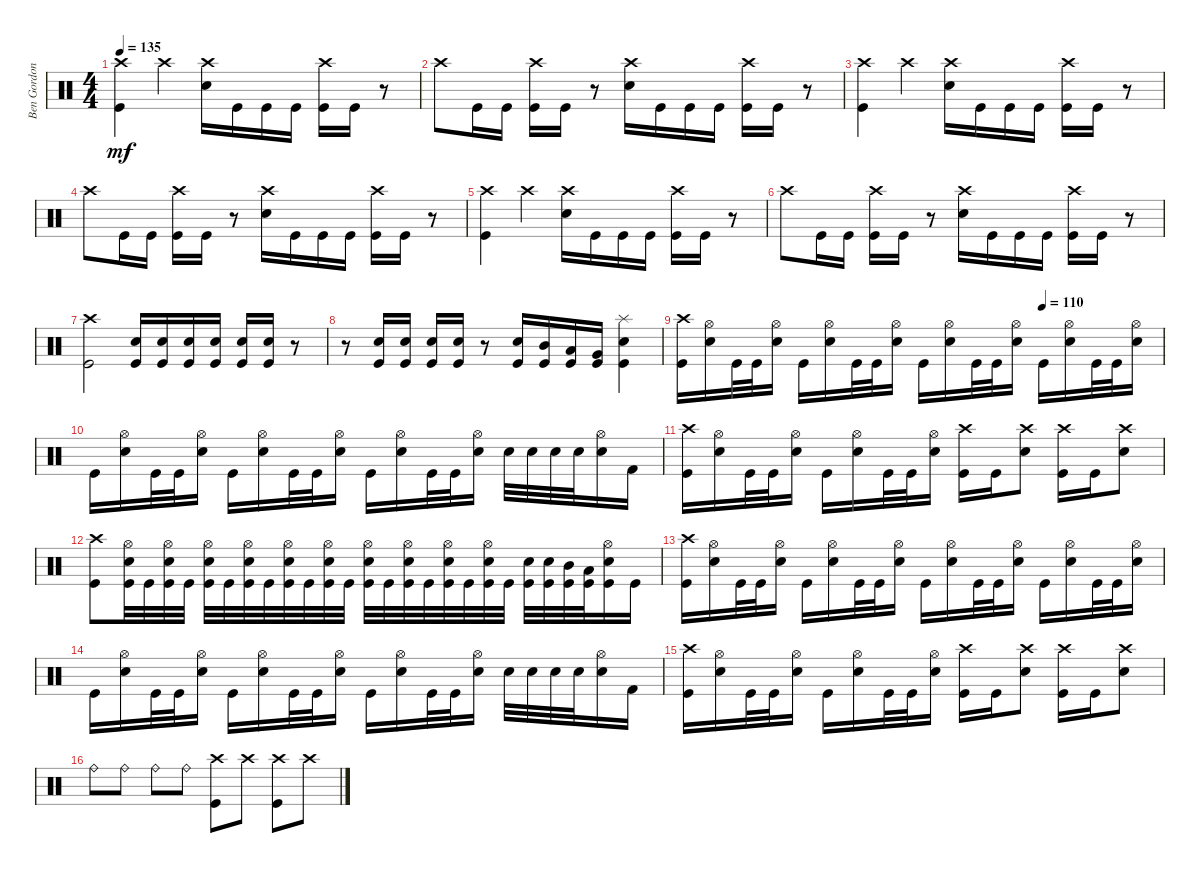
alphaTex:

\track ("Ben Gordon" "Ben Gordon") {instrument percussion}
\staff {score}
\articulation defaults
\ts (4 4)
\tempo 135
\clef neutral
\ks c
("Crash high (hit)" "Kick (hit)").4{dy mf} "Crash high (hit)".4 ("Crash high (hit)" "Snare (hit) 2").16 "Kick (hit)".16 "Kick (hit)".16 "Kick (hit)".16 ("Crash high (hit)" "Kick (hit)").16 "Kick (hit)".16 r.8 |
"Crash high (hit)".8 "Kick (hit)".16 "Kick (hit)".16 ("Crash high (hit)" "Kick (hit)").16 "Kick (hit)".16 r.8 ("Crash high (hit)" "Snare (hit) 2").16 "Kick (hit)".16 "Kick (hit)".16 "Kick (hit)".16 ("Crash high (hit)" "Kick (hit)").16 "Kick (hit)".16 r.8 |
("Crash high (hit)" "Kick (hit)").4 "Crash high (hit)".4 ("Crash high (hit)" "Snare (hit) 2").16 "Kick (hit)".16 "Kick (hit)".16 "Kick (hit)".16 ("Crash high (hit)" "Kick (hit)").16 "Kick (hit)".16 r.8 |
"Crash high (hit)".8 "Kick (hit)".16 "Kick (hit)".16 ("Crash high (hit)" "Kick (hit)").16 "Kick (hit)".16 r.8 ("Crash high (hit)" "Snare (hit) 2").16 "Kick (hit)".16 "Kick (hit)".16 "Kick (hit)".16 ("Crash high (hit)" "Kick (hit)").16 "Kick (hit)".16 r.8 |
("Crash high (hit)" "Kick (hit)").4 "Crash high (hit)".4 ("Crash high (hit)" "Snare (hit) 2").16 "Kick (hit)".16 "Kick (hit)".16 "Kick (hit)".16 ("Crash high (hit)" "Kick (hit)").16 "Kick (hit)".16 r.8 |
"Crash high (hit)".8 "Kick (hit)".16 "Kick (hit)".16 ("Crash high (hit)" "Kick (hit)").16 "Kick (hit)".16 r.8 ("Crash high (hit)" "Snare (hit) 2").16 "Kick (hit)".16 "Kick (hit)".16 "Kick (hit)".16 ("Crash high (hit)" "Kick (hit)").16 "Kick (hit)".16 r.8 |
("Crash high (hit)" "Kick (hit)").2 ("Snare (hit) 2" "Kick (hit)").16 ("Snare (hit) 2" "Kick (hit)").16 ("Snare (hit) 2" "Kick (hit)").16 ("Snare (hit) 2" "Kick (hit)").16 ("Snare (hit) 2" "Kick (hit)").16 ("Snare (hit) 2" "Kick (hit)").16 r.8 |
r.8 ("Snare (hit) 2" "Kick (hit)").16 ("Snare (hit) 2" "Kick (hit)").16 ("Snare (hit) 2" "Kick (hit)").16 ("Snare (hit) 2" "Kick (hit)").16 r.8 ("Snare (hit) 2" "Kick (hit)").16 ("Mid Tom (hit)" "Kick (hit)").16 ("Low Tom (hit)" "Kick (hit)").16 ("Very Low Tom (hit)" "Kick (hit)").16 ("Splash (hit)" "Snare (hit) 2" "Kick (hit)").4 |
\tempo (110 0.75)
("Crash high (hit)" "Kick (hit)").16 ("Hi-Hat (open)" "Snare (hit) 2").16 "Kick (hit)".32 "Kick (hit)".32 ("Hi-Hat (open)" "Snare (hit) 2").16 "Kick (hit)".16 ("Hi-Hat (open)" "Snare (hit) 2").16 "Kick (hit)".32 "Kick (hit)".32 ("Hi-Hat (open)" "Snare (hit) 2").16 "Kick (hit)".16 ("Hi-Hat (open)" "Snare (hit) 2").16 "Kick (hit)".32 "Kick (hit)".32 ("Hi-Hat (open)" "Snare (hit) 2").16 "Kick (hit)".16 ("Hi-Hat (open)" "Snare (hit) 2").16 "Kick (hit)".32 "Kick (hit)".32 ("Hi-Hat (open)" "Snare (hit) 2").16 |
"Kick (hit)".16 ("Hi-Hat (open)" "Snare (hit) 2").16 "Kick (hit)".32 "Kick (hit)".32 ("Hi-Hat (open)" "Snare (hit) 2").16 "Kick (hit)".16 ("Hi-Hat (open)" "Snare (hit) 2").16 "Kick (hit)".32 "Kick (hit)".32 ("Hi-Hat (open)" "Snare (hit) 2").16 "Kick (hit)".16 ("Hi-Hat (open)" "Snare (hit) 2").16 "Kick (hit)".32 "Kick (hit)".32 ("Hi-Hat (open)" "Snare (hit) 2").16 "Snare (hit) 2".32 "Snare (hit) 2".32 "Snare (hit) 2".32 "Snare (hit) 2".32 ("Hi-Hat (open)" "Snare (hit) 2").16 "Kick (hit) 2".16 |
("Crash high (hit)" "Kick (hit)").16 ("Hi-Hat (open)" "Snare (hit) 2").16 "Kick (hit)".32 "Kick (hit)".32 ("Hi-Hat (open)" "Snare (hit) 2").16 "Kick (hit)".16 ("Hi-Hat (open)" "Snare (hit) 2").16 "Kick (hit)".32 "Kick (hit)".32 ("Hi-Hat (open)" "Snare (hit) 2").16 ("Crash high (hit)" "Kick (hit)").16 "Kick (hit)".16 ("Crash high (hit)" "Snare (hit) 2").8 ("Crash high (hit)" "Kick (hit)").16 "Kick (hit)".16 ("Crash high (hit)" "Snare (hit) 2").8 |
("Crash high (hit)" "Kick (hit)").8 ("Hi-Hat (open)" "Snare (hit) 2" "Kick (hit)").32 "Kick (hit)".32 ("Hi-Hat (open)" "Snare (hit) 2" "Kick (hit)").32 "Kick (hit)".32 ("Hi-Hat (open)" "Snare (hit) 2" "Kick (hit)").32 "Kick (hit)".32 ("Hi-Hat (open)" "Snare (hit) 2" "Kick (hit)").32 "Kick (hit)".32 ("Hi-Hat (open)" "Snare (hit) 2" "Kick (hit)").32 "Kick (hit)".32 ("Hi-Hat (open)" "Snare (hit) 2" "Kick (hit)").32 "Kick (hit)".32 ("Hi-Hat (open)" "Snare (hit) 2" "Kick (hit)").32 "Kick (hit)".32 ("Hi-Hat (open)" "Snare (hit) 2" "Kick (hit)").32 "Kick (hit)".32 ("Hi-Hat (open)" "Snare (hit) 2" "Kick (hit)").32 "Kick (hit)".32 ("Hi-Hat (open)" "Snare (hit) 2" "Kick (hit)").32 "Kick (hit)".32 ("Snare (hit) 2" "Kick (hit)").32 ("Snare (hit) 2" "Kick (hit)").32 ("Mid Tom (hit)" "Kick (hit)").32 ("Low Tom (hit)" "Kick (hit)").32 ("Hi-Hat (open)" "Snare (hit) 2" "Kick (hit)").16 "Kick (hit)".16 |
("Crash high (hit)" "Kick (hit)").16 ("Hi-Hat (open)" "Snare (hit) 2").16 "Kick (hit)".32 "Kick (hit)".32 ("Hi-Hat (open)" "Snare (hit) 2").16 "Kick (hit)".16 ("Hi-Hat (open)" "Snare (hit) 2").16 "Kick (hit)".32 "Kick (hit)".32 ("Hi-Hat (open)" "Snare (hit) 2").16 "Kick (hit)".16 ("Hi-Hat (open)" "Snare (hit) 2").16 "Kick (hit)".32 "Kick (hit)".32 ("Hi-Hat (open)" "Snare (hit) 2").16 "Kick (hit)".16 ("Hi-Hat (open)" "Snare (hit) 2").16 "Kick (hit)".32 "Kick (hit)".32 ("Hi-Hat (open)" "Snare (hit) 2").16 |
"Kick (hit)".16 ("Hi-Hat (open)" "Snare (hit) 2").16 "Kick (hit)".32 "Kick (hit)".32 ("Hi-Hat (open)" "Snare (hit) 2").16 "Kick (hit)".16 ("Hi-Hat (open)" "Snare (hit) 2").16 "Kick (hit)".32 "Kick (hit)".32 ("Hi-Hat (open)" "Snare (hit) 2").16 "Kick (hit)".16 ("Hi-Hat (open)" "Snare (hit) 2").16 "Kick (hit)".32 "Kick (hit)".32 ("Hi-Hat (open)" "Snare (hit) 2").16 "Snare (hit) 2".32 "Snare (hit) 2".32 "Snare (hit) 2".32 "Snare (hit) 2".32 ("Hi-Hat (open)" "Snare (hit) 2").16 "Kick (hit) 2".16 |
("Crash high (hit)" "Kick (hit)").16 ("Hi-Hat (open)" "Snare (hit) 2").16 "Kick (hit)".32 "Kick (hit)".32 ("Hi-Hat (open)" "Snare (hit) 2").16 "Kick (hit)".16 ("Hi-Hat (open)" "Snare (hit) 2").16 "Kick (hit)".32 "Kick (hit)".32 ("Hi-Hat (open)" "Snare (hit) 2").16 ("Crash high (hit)" "Kick (hit)").16 "Kick (hit)".16 ("Crash high (hit)" "Snare (hit) 2").8 ("Crash high (hit)" "Kick (hit)").16 "Kick (hit)".16 ("Crash high (hit)" "Snare (hit) 2").8 |
"Ride (bell)".8 "Ride (bell)".8 "Ride (bell)".8 "Ride (bell)".8 ("Crash high (hit)" "Kick (hit)").8 "Crash high (hit)".8 ("Crash high (hit)" "Kick (hit)").8 "Crash high (hit)".8
